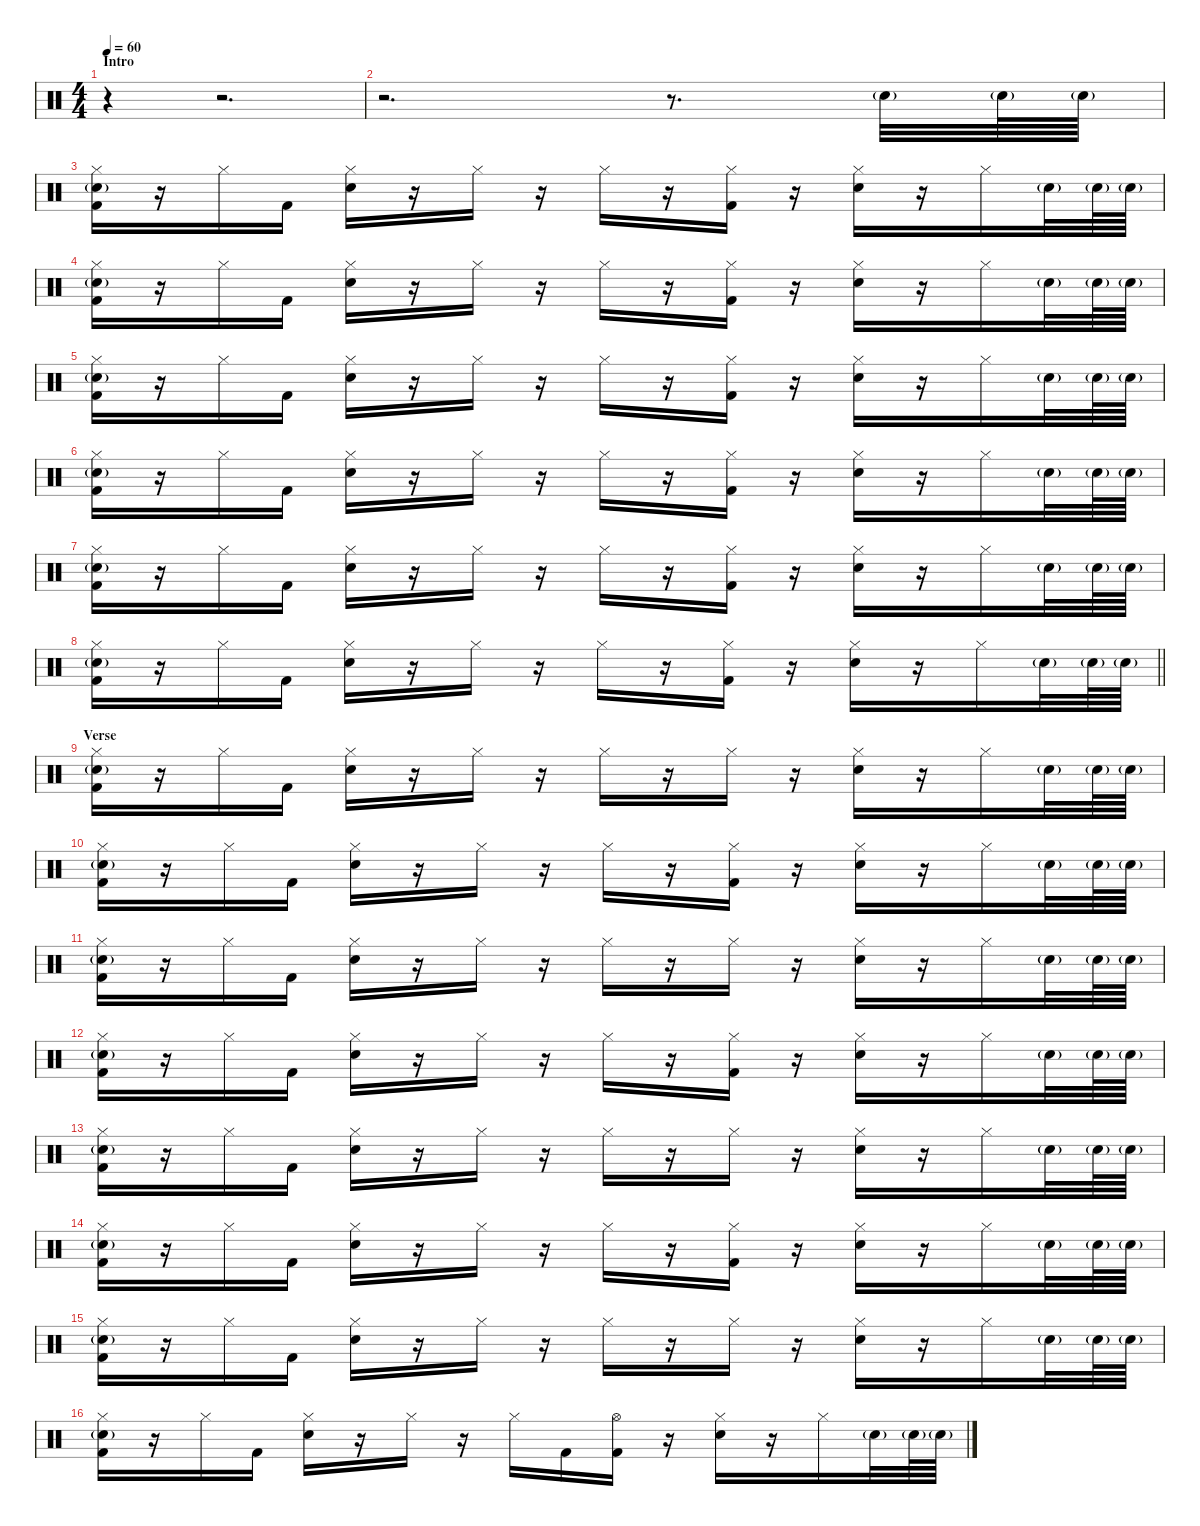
\defaultSystemsLayout 4
\hideDynamics
\bracketExtendMode nobrackets
\singleTrackTrackNamePolicy hidden
\multiTrackTrackNamePolicy hidden
\firstSystemTrackNameMode fullname
\firstSystemTrackNameOrientation horizontal
\otherSystemsTrackNameOrientation horizontal
\track ("Gene Hoglan" "drm.") {instrument percussion}
\staff {score}
\articulation defaults
\ts (4 4)
\section ("" "Intro")
\tempo 60
\clef neutral
\ks c
r.4{dy f beam Down} r.2{d beam Down} |
r.2{d beam Down} r.8{d beam Down} "Snare (hit) 2"{g}.32{beam Down} "Snare (hit) 2"{g}.64{beam Down} "Snare (hit) 2"{g}.64{beam Down} |
("Hi-Hat (closed)" "Snare (hit) 2"{g} "Kick (hit) 2").16{beam Down} r.16{beam Down} "Hi-Hat (closed)".16{beam Down} "Kick (hit) 2".16{beam Down} ("Hi-Hat (closed)" "Snare (hit) 2").16{beam Down} r.16{beam Down} "Hi-Hat (closed)".16{beam Down} r.16{beam Down} "Hi-Hat (closed)".16{beam Down} r.16{beam Down} ("Hi-Hat (closed)" "Kick (hit) 2").16{beam Down} r.16{beam Down} ("Hi-Hat (closed)" "Snare (hit) 2").16{beam Down} r.16{beam Down} "Hi-Hat (closed)".16{beam Down} "Snare (hit) 2"{g}.32{beam Down} "Snare (hit) 2"{g}.64{beam Down} "Snare (hit) 2"{g}.64{beam Down} |
("Hi-Hat (closed)" "Snare (hit) 2"{g} "Kick (hit) 2").16{beam Down} r.16{beam Down} "Hi-Hat (closed)".16{beam Down} "Kick (hit) 2".16{beam Down} ("Hi-Hat (closed)" "Snare (hit) 2").16{beam Down} r.16{beam Down} "Hi-Hat (closed)".16{beam Down} r.16{beam Down} "Hi-Hat (closed)".16{beam Down} r.16{beam Down} ("Hi-Hat (closed)" "Kick (hit) 2").16{beam Down} r.16{beam Down} ("Hi-Hat (closed)" "Snare (hit) 2").16{beam Down} r.16{beam Down} "Hi-Hat (closed)".16{beam Down} "Snare (hit) 2"{g}.32{beam Down} "Snare (hit) 2"{g}.64{beam Down} "Snare (hit) 2"{g}.64{beam Down} |
("Hi-Hat (closed)" "Snare (hit) 2"{g} "Kick (hit) 2").16{beam Down} r.16{beam Down} "Hi-Hat (closed)".16{beam Down} "Kick (hit) 2".16{beam Down} ("Hi-Hat (closed)" "Snare (hit) 2").16{beam Down} r.16{beam Down} "Hi-Hat (closed)".16{beam Down} r.16{beam Down} "Hi-Hat (closed)".16{beam Down} r.16{beam Down} ("Hi-Hat (closed)" "Kick (hit) 2").16{beam Down} r.16{beam Down} ("Hi-Hat (closed)" "Snare (hit) 2").16{beam Down} r.16{beam Down} "Hi-Hat (closed)".16{beam Down} "Snare (hit) 2"{g}.32{beam Down} "Snare (hit) 2"{g}.64{beam Down} "Snare (hit) 2"{g}.64{beam Down} |
("Hi-Hat (closed)" "Snare (hit) 2"{g} "Kick (hit) 2").16{beam Down} r.16{beam Down} "Hi-Hat (closed)".16{beam Down} "Kick (hit) 2".16{beam Down} ("Hi-Hat (closed)" "Snare (hit) 2").16{beam Down} r.16{beam Down} "Hi-Hat (closed)".16{beam Down} r.16{beam Down} "Hi-Hat (closed)".16{beam Down} r.16{beam Down} ("Hi-Hat (closed)" "Kick (hit) 2").16{beam Down} r.16{beam Down} ("Hi-Hat (closed)" "Snare (hit) 2").16{beam Down} r.16{beam Down} "Hi-Hat (closed)".16{beam Down} "Snare (hit) 2"{g}.32{beam Down} "Snare (hit) 2"{g}.64{beam Down} "Snare (hit) 2"{g}.64{beam Down} |
("Hi-Hat (closed)" "Snare (hit) 2"{g} "Kick (hit) 2").16{beam Down} r.16{beam Down} "Hi-Hat (closed)".16{beam Down} "Kick (hit) 2".16{beam Down} ("Hi-Hat (closed)" "Snare (hit) 2").16{beam Down} r.16{beam Down} "Hi-Hat (closed)".16{beam Down} r.16{beam Down} "Hi-Hat (closed)".16{beam Down} r.16{beam Down} ("Hi-Hat (closed)" "Kick (hit) 2").16{beam Down} r.16{beam Down} ("Hi-Hat (closed)" "Snare (hit) 2").16{beam Down} r.16{beam Down} "Hi-Hat (closed)".16{beam Down} "Snare (hit) 2"{g}.32{beam Down} "Snare (hit) 2"{g}.64{beam Down} "Snare (hit) 2"{g}.64{beam Down} |
\barLineRight lightlight
("Hi-Hat (closed)" "Snare (hit) 2"{g} "Kick (hit) 2").16{beam Down} r.16{beam Down} "Hi-Hat (closed)".16{beam Down} "Kick (hit) 2".16{beam Down} ("Hi-Hat (closed)" "Snare (hit) 2").16{beam Down} r.16{beam Down} "Hi-Hat (closed)".16{beam Down} r.16{beam Down} "Hi-Hat (closed)".16{beam Down} r.16{beam Down} ("Hi-Hat (closed)" "Kick (hit) 2").16{beam Down} r.16{beam Down} ("Hi-Hat (closed)" "Snare (hit) 2").16{beam Down} r.16{beam Down} "Hi-Hat (closed)".16{beam Down} "Snare (hit) 2"{g}.32{beam Down} "Snare (hit) 2"{g}.64{beam Down} "Snare (hit) 2"{g}.64{beam Down} |
\section ("" "Verse")
("Hi-Hat (closed)" "Snare (hit) 2"{g} "Kick (hit) 2").16{beam Down} r.16{beam Down} "Hi-Hat (closed)".16{beam Down} "Kick (hit) 2".16{beam Down} ("Hi-Hat (closed)" "Snare (hit) 2").16{beam Down} r.16{beam Down} "Hi-Hat (closed)".16{beam Down} r.16{beam Down} "Hi-Hat (closed)".16{beam Down} r.16{beam Down} "Hi-Hat (closed)".16{beam Down} r.16{beam Down} ("Hi-Hat (closed)" "Snare (hit) 2").16{beam Down} r.16{beam Down} "Hi-Hat (closed)".16{beam Down} "Snare (hit) 2"{g}.32{beam Down} "Snare (hit) 2"{g}.64{beam Down} "Snare (hit) 2"{g}.64{beam Down} |
("Hi-Hat (closed)" "Snare (hit) 2"{g} "Kick (hit) 2").16{beam Down} r.16{beam Down} "Hi-Hat (closed)".16{beam Down} "Kick (hit) 2".16{beam Down} ("Hi-Hat (closed)" "Snare (hit) 2").16{beam Down} r.16{beam Down} "Hi-Hat (closed)".16{beam Down} r.16{beam Down} "Hi-Hat (closed)".16{beam Down} r.16{beam Down} ("Hi-Hat (closed)" "Kick (hit) 2").16{beam Down} r.16{beam Down} ("Hi-Hat (closed)" "Snare (hit) 2").16{beam Down} r.16{beam Down} "Hi-Hat (closed)".16{beam Down} "Snare (hit) 2"{g}.32{beam Down} "Snare (hit) 2"{g}.64{beam Down} "Snare (hit) 2"{g}.64{beam Down} |
("Hi-Hat (closed)" "Snare (hit) 2"{g} "Kick (hit) 2").16{beam Down} r.16{beam Down} "Hi-Hat (closed)".16{beam Down} "Kick (hit) 2".16{beam Down} ("Hi-Hat (closed)" "Snare (hit) 2").16{beam Down} r.16{beam Down} "Hi-Hat (closed)".16{beam Down} r.16{beam Down} "Hi-Hat (closed)".16{beam Down} r.16{beam Down} "Hi-Hat (closed)".16{beam Down} r.16{beam Down} ("Hi-Hat (closed)" "Snare (hit) 2").16{beam Down} r.16{beam Down} "Hi-Hat (closed)".16{beam Down} "Snare (hit) 2"{g}.32{beam Down} "Snare (hit) 2"{g}.64{beam Down} "Snare (hit) 2"{g}.64{beam Down} |
("Hi-Hat (closed)" "Snare (hit) 2"{g} "Kick (hit) 2").16{beam Down} r.16{beam Down} "Hi-Hat (closed)".16{beam Down} "Kick (hit) 2".16{beam Down} ("Hi-Hat (closed)" "Snare (hit) 2").16{beam Down} r.16{beam Down} "Hi-Hat (closed)".16{beam Down} r.16{beam Down} "Hi-Hat (closed)".16{beam Down} r.16{beam Down} ("Hi-Hat (closed)" "Kick (hit) 2").16{beam Down} r.16{beam Down} ("Hi-Hat (closed)" "Snare (hit) 2").16{beam Down} r.16{beam Down} "Hi-Hat (closed)".16{beam Down} "Snare (hit) 2"{g}.32{beam Down} "Snare (hit) 2"{g}.64{beam Down} "Snare (hit) 2"{g}.64{beam Down} |
("Hi-Hat (closed)" "Snare (hit) 2"{g} "Kick (hit) 2").16{beam Down} r.16{beam Down} "Hi-Hat (closed)".16{beam Down} "Kick (hit) 2".16{beam Down} ("Hi-Hat (closed)" "Snare (hit) 2").16{beam Down} r.16{beam Down} "Hi-Hat (closed)".16{beam Down} r.16{beam Down} "Hi-Hat (closed)".16{beam Down} r.16{beam Down} "Hi-Hat (closed)".16{beam Down} r.16{beam Down} ("Hi-Hat (closed)" "Snare (hit) 2").16{beam Down} r.16{beam Down} "Hi-Hat (closed)".16{beam Down} "Snare (hit) 2"{g}.32{beam Down} "Snare (hit) 2"{g}.64{beam Down} "Snare (hit) 2"{g}.64{beam Down} |
("Hi-Hat (closed)" "Snare (hit) 2"{g} "Kick (hit) 2").16{beam Down} r.16{beam Down} "Hi-Hat (closed)".16{beam Down} "Kick (hit) 2".16{beam Down} ("Hi-Hat (closed)" "Snare (hit) 2").16{beam Down} r.16{beam Down} "Hi-Hat (closed)".16{beam Down} r.16{beam Down} "Hi-Hat (closed)".16{beam Down} r.16{beam Down} ("Hi-Hat (closed)" "Kick (hit) 2").16{beam Down} r.16{beam Down} ("Hi-Hat (closed)" "Snare (hit) 2").16{beam Down} r.16{beam Down} "Hi-Hat (closed)".16{beam Down} "Snare (hit) 2"{g}.32{beam Down} "Snare (hit) 2"{g}.64{beam Down} "Snare (hit) 2"{g}.64{beam Down} |
("Hi-Hat (closed)" "Snare (hit) 2"{g} "Kick (hit) 2").16{beam Down} r.16{beam Down} "Hi-Hat (closed)".16{beam Down} "Kick (hit) 2".16{beam Down} ("Hi-Hat (closed)" "Snare (hit) 2").16{beam Down} r.16{beam Down} "Hi-Hat (closed)".16{beam Down} r.16{beam Down} "Hi-Hat (closed)".16{beam Down} r.16{beam Down} "Hi-Hat (closed)".16{beam Down} r.16{beam Down} ("Hi-Hat (closed)" "Snare (hit) 2").16{beam Down} r.16{beam Down} "Hi-Hat (closed)".16{beam Down} "Snare (hit) 2"{g}.32{beam Down} "Snare (hit) 2"{g}.64{beam Down} "Snare (hit) 2"{g}.64{beam Down} |
("Hi-Hat (closed)" "Snare (hit) 2"{g} "Kick (hit) 2").16{beam Down} r.16{beam Down} "Hi-Hat (closed)".16{beam Down} "Kick (hit) 2".16{beam Down} ("Hi-Hat (closed)" "Snare (hit) 2").16{beam Down} r.16{beam Down} "Hi-Hat (closed)".16{beam Down} r.16{beam Down} "Hi-Hat (closed)".16{beam Down} "Kick (hit) 2".16{beam Down} ("Hi-Hat (open)" "Kick (hit) 2").16{beam Down} r.16{beam Down} ("Hi-Hat (closed)" "Snare (hit) 2").16{beam Down} r.16{beam Down} "Hi-Hat (closed)".16{beam Down} "Snare (hit) 2"{g}.32{beam Down} "Snare (hit) 2"{g}.64{beam Down} "Snare (hit) 2"{g}.64{beam Down}
